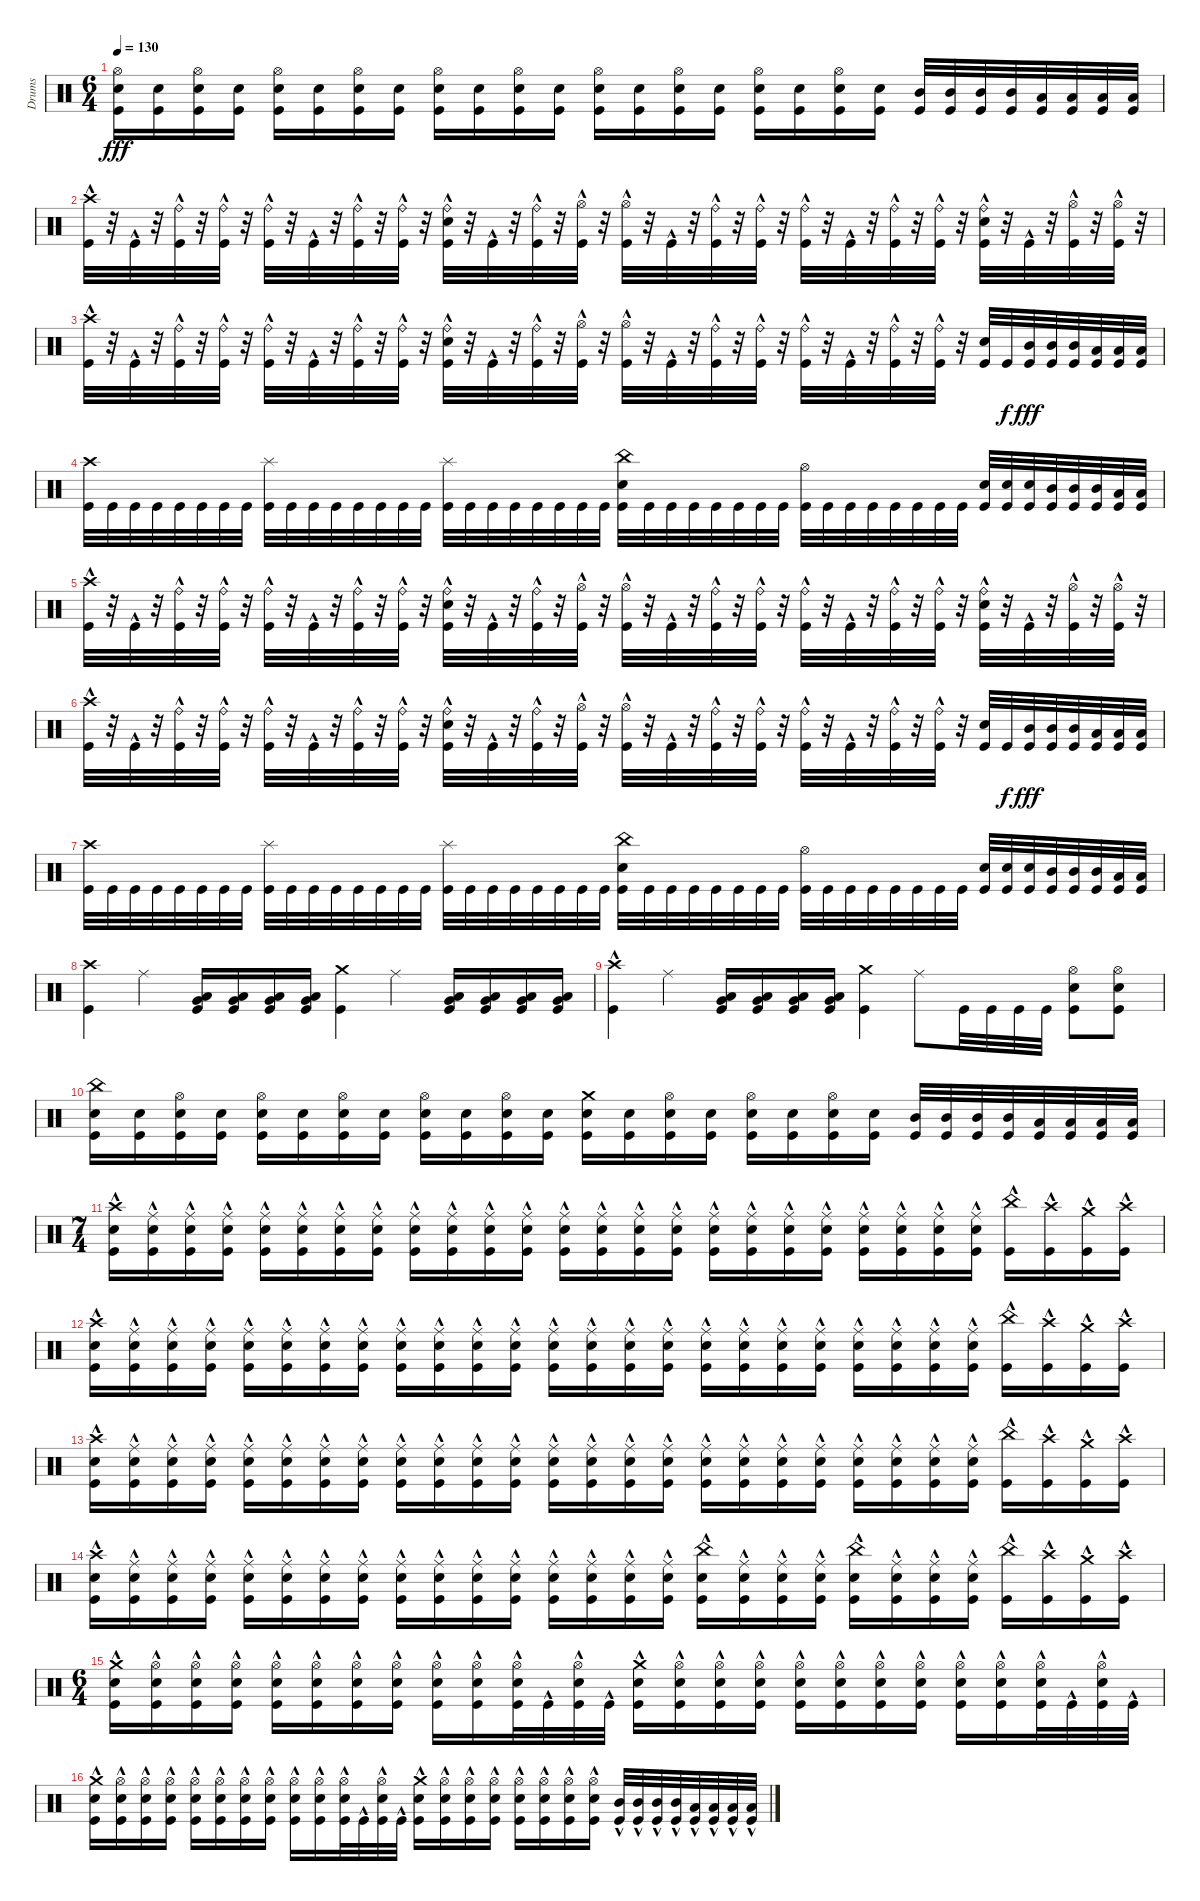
\track ("Drums" "Drums") {instrument percussion}
\staff {score}
\articulation defaults
\ts (6 4)
\tempo 130
\clef neutral
\ks c
("Hi-Hat (open)" "Snare (hit) 2" "Kick (hit)").16{dy fff} ("Snare (hit) 2" "Kick (hit)").16 ("Hi-Hat (open)" "Snare (hit) 2" "Kick (hit)").16 ("Snare (hit) 2" "Kick (hit)").16 ("Hi-Hat (open)" "Snare (hit) 2" "Kick (hit)").16 ("Snare (hit) 2" "Kick (hit)").16 ("Hi-Hat (open)" "Snare (hit) 2" "Kick (hit)").16 ("Snare (hit) 2" "Kick (hit)").16 ("Hi-Hat (open)" "Snare (hit) 2" "Kick (hit)").16 ("Snare (hit) 2" "Kick (hit)").16 ("Hi-Hat (open)" "Snare (hit) 2" "Kick (hit)").16 ("Snare (hit) 2" "Kick (hit)").16 ("Hi-Hat (open)" "Snare (hit) 2" "Kick (hit)").16 ("Snare (hit) 2" "Kick (hit)").16 ("Hi-Hat (open)" "Snare (hit) 2" "Kick (hit)").16 ("Snare (hit) 2" "Kick (hit)").16 ("Hi-Hat (open)" "Snare (hit) 2" "Kick (hit)").16 ("Snare (hit) 2" "Kick (hit)").16 ("Hi-Hat (open)" "Snare (hit) 2" "Kick (hit)").16 ("Snare (hit) 2" "Kick (hit)").16 ("Mid Tom (hit)" "Kick (hit)").32 ("Mid Tom (hit)" "Kick (hit)").32 ("Mid Tom (hit)" "Kick (hit)").32 ("Mid Tom (hit)" "Kick (hit)").32 ("Low Tom (hit)" "Kick (hit)").32 ("Low Tom (hit)" "Kick (hit)").32 ("Low Tom (hit)" "Kick (hit)").32 ("Low Tom (hit)" "Kick (hit)").32 |
("Crash high (hit)" "Kick (hit)"{hac}).32 r.32 "Kick (hit)"{hac}.32 r.32 ("Ride (bell)" "Kick (hit)"{hac}).32 r.32 ("Ride (bell)" "Kick (hit)"{hac}).32 r.32 ("Ride (bell)" "Kick (hit)"{hac}).32 r.32 "Kick (hit)"{hac}.32 r.32 ("Ride (bell)" "Kick (hit)"{hac}).32 r.32 ("Ride (bell)" "Kick (hit)"{hac}).32 r.32 ("Ride (bell)" "Snare (hit) 2" "Kick (hit)"{hac}).32 r.32 "Kick (hit)"{hac}.32 r.32 ("Ride (bell)" "Kick (hit)"{hac}).32 r.32 ("Hi-Hat (open)" "Kick (hit)"{hac}).32 r.32 ("Hi-Hat (open)" "Kick (hit)"{hac}).32 r.32 "Kick (hit)"{hac}.32 r.32 ("Ride (bell)" "Kick (hit)"{hac}).32 r.32 ("Ride (bell)" "Kick (hit)"{hac}).32 r.32 ("Ride (bell)" "Kick (hit)"{hac}).32 r.32 "Kick (hit)"{hac}.32 r.32 ("Ride (bell)" "Kick (hit)"{hac}).32 r.32 ("Ride (bell)" "Kick (hit)"{hac}).32 r.32 ("Ride (bell)" "Snare (hit) 2" "Kick (hit)"{hac}).32 r.32 "Kick (hit)"{hac}.32 r.32 ("Hi-Hat (open)" "Kick (hit)"{hac}).32 r.32 ("Hi-Hat (open)" "Kick (hit)"{hac}).32 r.32 |
("Crash high (hit)" "Kick (hit)"{hac}).32 r.32 "Kick (hit)"{hac}.32 r.32 ("Ride (bell)" "Kick (hit)"{hac}).32 r.32 ("Ride (bell)" "Kick (hit)"{hac}).32 r.32 ("Ride (bell)" "Kick (hit)"{hac}).32 r.32 "Kick (hit)"{hac}.32 r.32 ("Ride (bell)" "Kick (hit)"{hac}).32 r.32 ("Ride (bell)" "Kick (hit)"{hac}).32 r.32 ("Ride (bell)" "Snare (hit) 2" "Kick (hit)"{hac}).32 r.32 "Kick (hit)"{hac}.32 r.32 ("Ride (bell)" "Kick (hit)"{hac}).32 r.32 ("Hi-Hat (open)" "Kick (hit)"{hac}).32 r.32 ("Hi-Hat (open)" "Kick (hit)"{hac}).32 r.32 "Kick (hit)"{hac}.32 r.32 ("Ride (bell)" "Kick (hit)"{hac}).32 r.32 ("Ride (bell)" "Kick (hit)"{hac}).32 r.32 ("Ride (bell)" "Kick (hit)"{hac}).32 r.32 "Kick (hit)"{hac}.32 r.32 ("Ride (bell)" "Kick (hit)"{hac}).32 r.32 ("Ride (bell)" "Kick (hit)"{hac}).32 r.32 ("Snare (hit) 2" "Kick (hit)").32 "Kick (hit)".32{dy f} ("Mid Tom (hit)" "Kick (hit)").32{dy fff} ("Mid Tom (hit)" "Kick (hit)").32 ("Mid Tom (hit)" "Kick (hit)").32 ("Low Tom (hit)" "Kick (hit)").32 ("Low Tom (hit)" "Kick (hit)").32 ("Low Tom (hit)" "Kick (hit)").32 |
("Crash high (hit)" "Kick (hit)").32 "Kick (hit)".32 "Kick (hit)".32 "Kick (hit)".32 "Kick (hit)".32 "Kick (hit)".32 "Kick (hit)".32 "Kick (hit)".32 ("Splash (hit)" "Kick (hit)").32 "Kick (hit)".32 "Kick (hit)".32 "Kick (hit)".32 "Kick (hit)".32 "Kick (hit)".32 "Kick (hit)".32 "Kick (hit)".32 ("Splash (hit)" "Kick (hit)").32 "Kick (hit)".32 "Kick (hit)".32 "Kick (hit)".32 "Kick (hit)".32 "Kick (hit)".32 "Kick (hit)".32 "Kick (hit)".32 ("China (hit)" "Snare (hit) 2" "Kick (hit)").32 "Kick (hit)".32 "Kick (hit)".32 "Kick (hit)".32 "Kick (hit)".32 "Kick (hit)".32 "Kick (hit)".32 "Kick (hit)".32 ("Hi-Hat (open)" "Kick (hit)").32 "Kick (hit)".32 "Kick (hit)".32 "Kick (hit)".32 "Kick (hit)".32 "Kick (hit)".32 "Kick (hit)".32 "Kick (hit)".32 ("Snare (hit) 2" "Kick (hit)").32 ("Snare (hit) 2" "Kick (hit)").32 ("Snare (hit) 2" "Kick (hit)").32 ("Mid Tom (hit)" "Kick (hit)").32 ("Mid Tom (hit)" "Kick (hit)").32 ("Mid Tom (hit)" "Kick (hit)").32 ("Low Tom (hit)" "Kick (hit)").32 ("Low Tom (hit)" "Kick (hit)").32 |
("Crash high (hit)" "Kick (hit)"{hac}).32 r.32 "Kick (hit)"{hac}.32 r.32 ("Ride (bell)" "Kick (hit)"{hac}).32 r.32 ("Ride (bell)" "Kick (hit)"{hac}).32 r.32 ("Ride (bell)" "Kick (hit)"{hac}).32 r.32 "Kick (hit)"{hac}.32 r.32 ("Ride (bell)" "Kick (hit)"{hac}).32 r.32 ("Ride (bell)" "Kick (hit)"{hac}).32 r.32 ("Ride (bell)" "Snare (hit) 2" "Kick (hit)"{hac}).32 r.32 "Kick (hit)"{hac}.32 r.32 ("Ride (bell)" "Kick (hit)"{hac}).32 r.32 ("Hi-Hat (open)" "Kick (hit)"{hac}).32 r.32 ("Hi-Hat (open)" "Kick (hit)"{hac}).32 r.32 "Kick (hit)"{hac}.32 r.32 ("Ride (bell)" "Kick (hit)"{hac}).32 r.32 ("Ride (bell)" "Kick (hit)"{hac}).32 r.32 ("Ride (bell)" "Kick (hit)"{hac}).32 r.32 "Kick (hit)"{hac}.32 r.32 ("Ride (bell)" "Kick (hit)"{hac}).32 r.32 ("Ride (bell)" "Kick (hit)"{hac}).32 r.32 ("Ride (bell)" "Snare (hit) 2" "Kick (hit)"{hac}).32 r.32 "Kick (hit)"{hac}.32 r.32 ("Hi-Hat (open)" "Kick (hit)"{hac}).32 r.32 ("Hi-Hat (open)" "Kick (hit)"{hac}).32 r.32 |
("Crash high (hit)" "Kick (hit)"{hac}).32 r.32 "Kick (hit)"{hac}.32 r.32 ("Ride (bell)" "Kick (hit)"{hac}).32 r.32 ("Ride (bell)" "Kick (hit)"{hac}).32 r.32 ("Ride (bell)" "Kick (hit)"{hac}).32 r.32 "Kick (hit)"{hac}.32 r.32 ("Ride (bell)" "Kick (hit)"{hac}).32 r.32 ("Ride (bell)" "Kick (hit)"{hac}).32 r.32 ("Ride (bell)" "Snare (hit) 2" "Kick (hit)"{hac}).32 r.32 "Kick (hit)"{hac}.32 r.32 ("Ride (bell)" "Kick (hit)"{hac}).32 r.32 ("Hi-Hat (open)" "Kick (hit)"{hac}).32 r.32 ("Hi-Hat (open)" "Kick (hit)"{hac}).32 r.32 "Kick (hit)"{hac}.32 r.32 ("Ride (bell)" "Kick (hit)"{hac}).32 r.32 ("Ride (bell)" "Kick (hit)"{hac}).32 r.32 ("Ride (bell)" "Kick (hit)"{hac}).32 r.32 "Kick (hit)"{hac}.32 r.32 ("Ride (bell)" "Kick (hit)"{hac}).32 r.32 ("Ride (bell)" "Kick (hit)"{hac}).32 r.32 ("Snare (hit) 2" "Kick (hit)").32 "Kick (hit)".32{dy f} ("Mid Tom (hit)" "Kick (hit)").32{dy fff} ("Mid Tom (hit)" "Kick (hit)").32 ("Mid Tom (hit)" "Kick (hit)").32 ("Low Tom (hit)" "Kick (hit)").32 ("Low Tom (hit)" "Kick (hit)").32 ("Low Tom (hit)" "Kick (hit)").32 |
("Crash high (hit)" "Kick (hit)").32 "Kick (hit)".32 "Kick (hit)".32 "Kick (hit)".32 "Kick (hit)".32 "Kick (hit)".32 "Kick (hit)".32 "Kick (hit)".32 ("Splash (hit)" "Kick (hit)").32 "Kick (hit)".32 "Kick (hit)".32 "Kick (hit)".32 "Kick (hit)".32 "Kick (hit)".32 "Kick (hit)".32 "Kick (hit)".32 ("Splash (hit)" "Kick (hit)").32 "Kick (hit)".32 "Kick (hit)".32 "Kick (hit)".32 "Kick (hit)".32 "Kick (hit)".32 "Kick (hit)".32 "Kick (hit)".32 ("China (hit)" "Snare (hit) 2" "Kick (hit)").32 "Kick (hit)".32 "Kick (hit)".32 "Kick (hit)".32 "Kick (hit)".32 "Kick (hit)".32 "Kick (hit)".32 "Kick (hit)".32 ("Hi-Hat (open)" "Kick (hit)").32 "Kick (hit)".32 "Kick (hit)".32 "Kick (hit)".32 "Kick (hit)".32 "Kick (hit)".32 "Kick (hit)".32 "Kick (hit)".32 ("Snare (hit) 2" "Kick (hit)").32 ("Snare (hit) 2" "Kick (hit)").32 ("Snare (hit) 2" "Kick (hit)").32 ("Mid Tom (hit)" "Kick (hit)").32 ("Mid Tom (hit)" "Kick (hit)").32 ("Mid Tom (hit)" "Kick (hit)").32 ("Low Tom (hit)" "Kick (hit)").32 ("Low Tom (hit)" "Kick (hit)").32 |
("Crash high (hit)" "Kick (hit)").4 "Ride (middle)".4 ("Very Low Tom (hit)" "Low Tom (hit)" "Kick (hit)").16 ("Very Low Tom (hit)" "Low Tom (hit)" "Kick (hit)").16 ("Very Low Tom (hit)" "Low Tom (hit)" "Kick (hit)").16 ("Very Low Tom (hit)" "Low Tom (hit)" "Kick (hit)").16 ("Crash medium (hit)" "Kick (hit)").4 "Ride (middle)".4 ("Very Low Tom (hit)" "Low Tom (hit)" "Kick (hit)").16 ("Very Low Tom (hit)" "Low Tom (hit)" "Kick (hit)").16 ("Very Low Tom (hit)" "Low Tom (hit)" "Kick (hit)").16 ("Very Low Tom (hit)" "Low Tom (hit)" "Kick (hit)").16 |
("Crash high (hit)"{hac} "Kick (hit)").4 "Ride (middle)".4 ("Very Low Tom (hit)" "Low Tom (hit)" "Kick (hit)").16 ("Very Low Tom (hit)" "Low Tom (hit)" "Kick (hit)").16 ("Very Low Tom (hit)" "Low Tom (hit)" "Kick (hit)").16 ("Very Low Tom (hit)" "Low Tom (hit)" "Kick (hit)").16 ("Crash medium (hit)" "Kick (hit)").4 "Ride (middle)".8 "Kick (hit)".32 "Kick (hit)".32 "Kick (hit)".32 "Kick (hit)".32 ("Hi-Hat (open)" "Snare (hit) 2" "Kick (hit)").8 ("Hi-Hat (open)" "Snare (hit) 2" "Kick (hit)").8 |
("China (hit)" "Snare (hit) 2" "Kick (hit)").16 ("Snare (hit) 2" "Kick (hit)").16 ("Hi-Hat (open)" "Snare (hit) 2" "Kick (hit)").16 ("Snare (hit) 2" "Kick (hit)").16 ("Hi-Hat (open)" "Snare (hit) 2" "Kick (hit)").16 ("Snare (hit) 2" "Kick (hit)").16 ("Hi-Hat (open)" "Snare (hit) 2" "Kick (hit)").16 ("Snare (hit) 2" "Kick (hit)").16 ("Hi-Hat (open)" "Snare (hit) 2" "Kick (hit)").16 ("Snare (hit) 2" "Kick (hit)").16 ("Hi-Hat (open)" "Snare (hit) 2" "Kick (hit)").16 ("Snare (hit) 2" "Kick (hit)").16 ("Crash medium (hit)" "Snare (hit) 2" "Kick (hit)").16 ("Snare (hit) 2" "Kick (hit)").16 ("Hi-Hat (open)" "Snare (hit) 2" "Kick (hit)").16 ("Snare (hit) 2" "Kick (hit)").16 ("Hi-Hat (open)" "Snare (hit) 2" "Kick (hit)").16 ("Snare (hit) 2" "Kick (hit)").16 ("Hi-Hat (open)" "Snare (hit) 2" "Kick (hit)").16 ("Snare (hit) 2" "Kick (hit)").16 ("Mid Tom (hit)" "Kick (hit)").32 ("Mid Tom (hit)" "Kick (hit)").32 ("Mid Tom (hit)" "Kick (hit)").32 ("Mid Tom (hit)" "Kick (hit)").32 ("Low Tom (hit)" "Kick (hit)").32 ("Low Tom (hit)" "Kick (hit)").32 ("Low Tom (hit)" "Kick (hit)").32 ("Low Tom (hit)" "Kick (hit)").32 |
\ts (7 4)
("Crash high (hit)"{hac} "Snare (hit) 2" "Kick (hit)"{hac}).16 ("Ride (middle)" "Snare (hit) 2" "Kick (hit)"{hac}).16 ("Ride (middle)"{hac} "Snare (hit) 2" "Kick (hit)"{hac}).16 ("Ride (middle)" "Snare (hit) 2" "Kick (hit)"{hac}).16 ("Ride (middle)"{hac} "Snare (hit) 2" "Kick (hit)"{hac}).16 ("Ride (middle)" "Snare (hit) 2" "Kick (hit)"{hac}).16 ("Ride (middle)"{hac} "Snare (hit) 2" "Kick (hit)"{hac}).16 ("Ride (middle)" "Snare (hit) 2" "Kick (hit)"{hac}).16 ("Ride (middle)"{hac} "Snare (hit) 2" "Kick (hit)"{hac}).16 ("Ride (middle)" "Snare (hit) 2" "Kick (hit)"{hac}).16 ("Ride (middle)"{hac} "Snare (hit) 2" "Kick (hit)"{hac}).16 ("Ride (middle)" "Snare (hit) 2" "Kick (hit)"{hac}).16 ("Ride (middle)"{hac} "Snare (hit) 2" "Kick (hit)"{hac}).16 ("Ride (middle)" "Snare (hit) 2" "Kick (hit)"{hac}).16 ("Ride (middle)"{hac} "Snare (hit) 2" "Kick (hit)"{hac}).16 ("Ride (middle)" "Snare (hit) 2" "Kick (hit)"{hac}).16 ("Ride (middle)"{hac} "Snare (hit) 2" "Kick (hit)"{hac}).16 ("Ride (middle)" "Snare (hit) 2" "Kick (hit)"{hac}).16 ("Ride (middle)"{hac} "Snare (hit) 2" "Kick (hit)"{hac}).16 ("Ride (middle)"{hac} "Snare (hit) 2" "Kick (hit)"{hac}).16 ("Ride (middle)" "Snare (hit) 2" "Kick (hit)"{hac}).16 ("Ride (middle)"{hac} "Snare (hit) 2" "Kick (hit)"{hac}).16 ("Ride (middle)" "Snare (hit) 2" "Kick (hit)"{hac}).16 ("Ride (middle)" "Snare (hit) 2" "Kick (hit)"{hac}).16 ("China (hit)" "Kick (hit)"{hac}).16 ("Crash high (hit)" "Kick (hit)"{hac}).16 ("Crash medium (hit)" "Kick (hit)"{hac}).16 ("Crash high (hit)" "Kick (hit)"{hac}).16 |
("Crash high (hit)"{hac} "Snare (hit) 2" "Kick (hit)"{hac}).16 ("Ride (middle)" "Snare (hit) 2" "Kick (hit)"{hac}).16 ("Ride (middle)"{hac} "Snare (hit) 2" "Kick (hit)"{hac}).16 ("Ride (middle)" "Snare (hit) 2" "Kick (hit)"{hac}).16 ("Ride (middle)"{hac} "Snare (hit) 2" "Kick (hit)"{hac}).16 ("Ride (middle)" "Snare (hit) 2" "Kick (hit)"{hac}).16 ("Ride (middle)"{hac} "Snare (hit) 2" "Kick (hit)"{hac}).16 ("Ride (middle)" "Snare (hit) 2" "Kick (hit)"{hac}).16 ("Ride (middle)"{hac} "Snare (hit) 2" "Kick (hit)"{hac}).16 ("Ride (middle)" "Snare (hit) 2" "Kick (hit)"{hac}).16 ("Ride (middle)"{hac} "Snare (hit) 2" "Kick (hit)"{hac}).16 ("Ride (middle)" "Snare (hit) 2" "Kick (hit)"{hac}).16 ("Ride (middle)"{hac} "Snare (hit) 2" "Kick (hit)"{hac}).16 ("Ride (middle)" "Snare (hit) 2" "Kick (hit)"{hac}).16 ("Ride (middle)"{hac} "Snare (hit) 2" "Kick (hit)"{hac}).16 ("Ride (middle)" "Snare (hit) 2" "Kick (hit)"{hac}).16 ("Ride (middle)"{hac} "Snare (hit) 2" "Kick (hit)"{hac}).16 ("Ride (middle)" "Snare (hit) 2" "Kick (hit)"{hac}).16 ("Ride (middle)"{hac} "Snare (hit) 2" "Kick (hit)"{hac}).16 ("Ride (middle)"{hac} "Snare (hit) 2" "Kick (hit)"{hac}).16 ("Ride (middle)" "Snare (hit) 2" "Kick (hit)"{hac}).16 ("Ride (middle)"{hac} "Snare (hit) 2" "Kick (hit)"{hac}).16 ("Ride (middle)" "Snare (hit) 2" "Kick (hit)"{hac}).16 ("Ride (middle)" "Snare (hit) 2" "Kick (hit)"{hac}).16 ("China (hit)" "Kick (hit)"{hac}).16 ("Crash high (hit)" "Kick (hit)"{hac}).16 ("Crash medium (hit)" "Kick (hit)"{hac}).16 ("Crash high (hit)" "Kick (hit)"{hac}).16 |
("Crash high (hit)"{hac} "Snare (hit) 2" "Kick (hit)"{hac}).16 ("Ride (middle)" "Snare (hit) 2" "Kick (hit)"{hac}).16 ("Ride (middle)"{hac} "Snare (hit) 2" "Kick (hit)"{hac}).16 ("Ride (middle)" "Snare (hit) 2" "Kick (hit)"{hac}).16 ("Ride (middle)"{hac} "Snare (hit) 2" "Kick (hit)"{hac}).16 ("Ride (middle)" "Snare (hit) 2" "Kick (hit)"{hac}).16 ("Ride (middle)"{hac} "Snare (hit) 2" "Kick (hit)"{hac}).16 ("Ride (middle)" "Snare (hit) 2" "Kick (hit)"{hac}).16 ("Ride (middle)"{hac} "Snare (hit) 2" "Kick (hit)"{hac}).16 ("Ride (middle)" "Snare (hit) 2" "Kick (hit)"{hac}).16 ("Ride (middle)"{hac} "Snare (hit) 2" "Kick (hit)"{hac}).16 ("Ride (middle)" "Snare (hit) 2" "Kick (hit)"{hac}).16 ("Ride (middle)"{hac} "Snare (hit) 2" "Kick (hit)"{hac}).16 ("Ride (middle)" "Snare (hit) 2" "Kick (hit)"{hac}).16 ("Ride (middle)"{hac} "Snare (hit) 2" "Kick (hit)"{hac}).16 ("Ride (middle)" "Snare (hit) 2" "Kick (hit)"{hac}).16 ("Ride (middle)"{hac} "Snare (hit) 2" "Kick (hit)"{hac}).16 ("Ride (middle)" "Snare (hit) 2" "Kick (hit)"{hac}).16 ("Ride (middle)"{hac} "Snare (hit) 2" "Kick (hit)"{hac}).16 ("Ride (middle)"{hac} "Snare (hit) 2" "Kick (hit)"{hac}).16 ("Ride (middle)" "Snare (hit) 2" "Kick (hit)"{hac}).16 ("Ride (middle)"{hac} "Snare (hit) 2" "Kick (hit)"{hac}).16 ("Ride (middle)" "Snare (hit) 2" "Kick (hit)"{hac}).16 ("Ride (middle)" "Snare (hit) 2" "Kick (hit)"{hac}).16 ("China (hit)" "Kick (hit)"{hac}).16 ("Crash high (hit)" "Kick (hit)"{hac}).16 ("Crash medium (hit)" "Kick (hit)"{hac}).16 ("Crash high (hit)" "Kick (hit)"{hac}).16 |
("Crash high (hit)"{hac} "Snare (hit) 2" "Kick (hit)"{hac}).16 ("Ride (middle)" "Snare (hit) 2" "Kick (hit)"{hac}).16 ("Ride (middle)"{hac} "Snare (hit) 2" "Kick (hit)"{hac}).16 ("Ride (middle)" "Snare (hit) 2" "Kick (hit)"{hac}).16 ("Ride (middle)"{hac} "Snare (hit) 2" "Kick (hit)"{hac}).16 ("Ride (middle)" "Snare (hit) 2" "Kick (hit)"{hac}).16 ("Ride (middle)"{hac} "Snare (hit) 2" "Kick (hit)"{hac}).16 ("Ride (middle)" "Snare (hit) 2" "Kick (hit)"{hac}).16 ("Ride (middle)"{hac} "Snare (hit) 2" "Kick (hit)"{hac}).16 ("Ride (middle)" "Snare (hit) 2" "Kick (hit)"{hac}).16 ("Ride (middle)"{hac} "Snare (hit) 2" "Kick (hit)"{hac}).16 ("Ride (middle)" "Snare (hit) 2" "Kick (hit)"{hac}).16 ("Ride (middle)"{hac} "Snare (hit) 2" "Kick (hit)"{hac}).16 ("Ride (middle)" "Snare (hit) 2" "Kick (hit)"{hac}).16 ("Ride (middle)"{hac} "Snare (hit) 2" "Kick (hit)"{hac}).16 ("Ride (middle)" "Snare (hit) 2" "Kick (hit)"{hac}).16 ("China (hit)"{hac} "Snare (hit) 2" "Kick (hit)"{hac}).16 ("Ride (middle)" "Snare (hit) 2" "Kick (hit)"{hac}).16 ("Ride (middle)"{hac} "Snare (hit) 2" "Kick (hit)"{hac}).16 ("Ride (middle)"{hac} "Snare (hit) 2" "Kick (hit)"{hac}).16 ("China (hit)" "Snare (hit) 2" "Kick (hit)"{hac}).16 ("Ride (middle)"{hac} "Snare (hit) 2" "Kick (hit)"{hac}).16 ("Ride (middle)" "Snare (hit) 2" "Kick (hit)"{hac}).16 ("Ride (middle)" "Snare (hit) 2" "Kick (hit)"{hac}).16 ("China (hit)" "Kick (hit)"{hac}).16 ("Crash high (hit)" "Kick (hit)"{hac}).16 ("Crash medium (hit)" "Kick (hit)"{hac}).16 ("Crash high (hit)" "Kick (hit)"{hac}).16 |
\ts (6 4)
("Crash medium (hit)" "Snare (hit) 2" "Kick (hit)"{hac}).16 ("Hi-Hat (open)" "Snare (hit) 2" "Kick (hit)"{hac}).16 ("Hi-Hat (open)" "Snare (hit) 2" "Kick (hit)"{hac}).16 ("Hi-Hat (open)" "Snare (hit) 2" "Kick (hit)"{hac}).16 ("Hi-Hat (open)" "Snare (hit) 2" "Kick (hit)"{hac}).16 ("Hi-Hat (open)" "Snare (hit) 2" "Kick (hit)"{hac}).16 ("Hi-Hat (open)" "Snare (hit) 2" "Kick (hit)"{hac}).16 ("Hi-Hat (open)" "Snare (hit) 2" "Kick (hit)"{hac}).16 ("Hi-Hat (open)" "Snare (hit) 2" "Kick (hit)"{hac}).16 ("Hi-Hat (open)" "Snare (hit) 2" "Kick (hit)"{hac}).16 ("Hi-Hat (open)" "Snare (hit) 2" "Kick (hit)"{hac}).32 "Kick (hit)"{hac}.32 ("Hi-Hat (open)" "Snare (hit) 2" "Kick (hit)"{hac}).32 "Kick (hit)"{hac}.32 ("Crash medium (hit)" "Snare (hit) 2" "Kick (hit)"{hac}).16 ("Hi-Hat (open)" "Snare (hit) 2" "Kick (hit)"{hac}).16 ("Hi-Hat (open)" "Snare (hit) 2" "Kick (hit)"{hac}).16 ("Hi-Hat (open)" "Snare (hit) 2" "Kick (hit)"{hac}).16 ("Hi-Hat (open)" "Snare (hit) 2" "Kick (hit)"{hac}).16 ("Hi-Hat (open)" "Snare (hit) 2" "Kick (hit)"{hac}).16 ("Hi-Hat (open)" "Snare (hit) 2" "Kick (hit)"{hac}).16 ("Hi-Hat (open)" "Snare (hit) 2" "Kick (hit)"{hac}).16 ("Hi-Hat (open)" "Snare (hit) 2" "Kick (hit)"{hac}).16 ("Hi-Hat (open)" "Snare (hit) 2" "Kick (hit)"{hac}).16 ("Hi-Hat (open)" "Snare (hit) 2" "Kick (hit)"{hac}).32 "Kick (hit)"{hac}.32 ("Hi-Hat (open)" "Snare (hit) 2" "Kick (hit)"{hac}).32 "Kick (hit)"{hac}.32 |
("Crash medium (hit)" "Snare (hit) 2" "Kick (hit)"{hac}).16 ("Hi-Hat (open)" "Snare (hit) 2" "Kick (hit)"{hac}).16 ("Hi-Hat (open)" "Snare (hit) 2" "Kick (hit)"{hac}).16 ("Hi-Hat (open)" "Snare (hit) 2" "Kick (hit)"{hac}).16 ("Hi-Hat (open)" "Snare (hit) 2" "Kick (hit)"{hac}).16 ("Hi-Hat (open)" "Snare (hit) 2" "Kick (hit)"{hac}).16 ("Hi-Hat (open)" "Snare (hit) 2" "Kick (hit)"{hac}).16 ("Hi-Hat (open)" "Snare (hit) 2" "Kick (hit)"{hac}).16 ("Hi-Hat (open)" "Snare (hit) 2" "Kick (hit)"{hac}).16 ("Hi-Hat (open)" "Snare (hit) 2" "Kick (hit)"{hac}).16 ("Hi-Hat (open)" "Snare (hit) 2" "Kick (hit)"{hac}).32 "Kick (hit)"{hac}.32 ("Hi-Hat (open)" "Snare (hit) 2" "Kick (hit)"{hac}).32 "Kick (hit)"{hac}.32 ("Crash medium (hit)" "Snare (hit) 2" "Kick (hit)"{hac}).16 ("Hi-Hat (open)" "Snare (hit) 2" "Kick (hit)"{hac}).16 ("Hi-Hat (open)" "Snare (hit) 2" "Kick (hit)"{hac}).16 ("Hi-Hat (open)" "Snare (hit) 2" "Kick (hit)"{hac}).16 ("Hi-Hat (open)" "Snare (hit) 2" "Kick (hit)"{hac}).16 ("Hi-Hat (open)" "Snare (hit) 2" "Kick (hit)"{hac}).16 ("Hi-Hat (open)" "Snare (hit) 2" "Kick (hit)"{hac}).16 ("Hi-Hat (open)" "Snare (hit) 2" "Kick (hit)"{hac}).16 ("Mid Tom (hit)" "Kick (hit)"{hac}).32 ("Mid Tom (hit)" "Kick (hit)"{hac}).32 ("Mid Tom (hit)" "Kick (hit)"{hac}).32 ("Mid Tom (hit)" "Kick (hit)"{hac}).32 ("Low Tom (hit)" "Kick (hit)"{hac}).32 ("Low Tom (hit)" "Kick (hit)"{hac}).32 ("Low Tom (hit)" "Kick (hit)"{hac}).32 ("Low Tom (hit)" "Kick (hit)"{hac}).32
